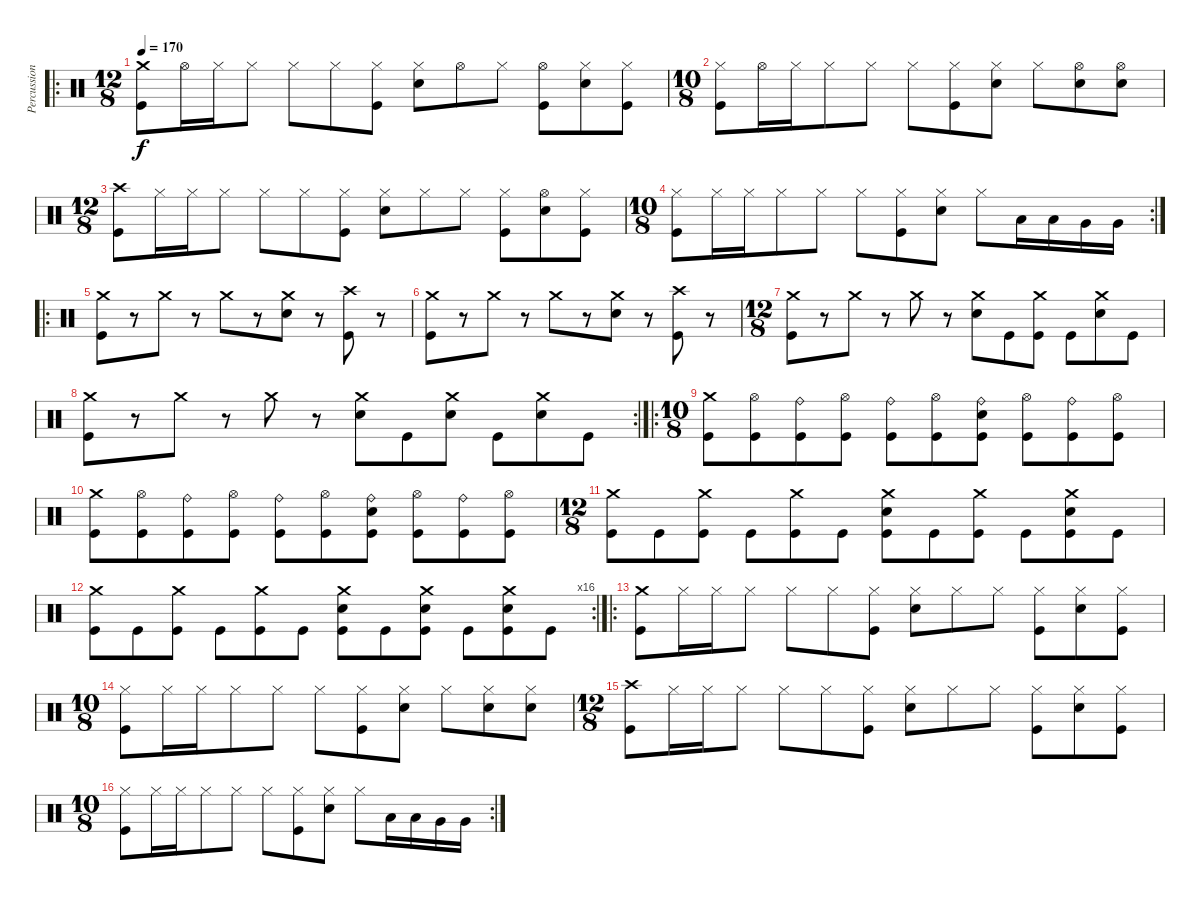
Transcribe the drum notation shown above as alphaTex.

\track ("Percussion" "Percussion") {instrument percussion}
\staff {score}
\articulation defaults
\ro
\ts (12 8)
\tempo 170
\clef neutral
\ks c
("Crash medium (hit)" "Kick (hit)").8{dy f} "Hi-Hat (open)".16 "Hi-Hat (closed)".16 "Hi-Hat (closed)".8 "Hi-Hat (closed)".8 "Hi-Hat (closed)".8 ("Hi-Hat (closed)" "Kick (hit)").8 ("Hi-Hat (closed)" "Snare (hit) 2").8 "Hi-Hat (open)".8 "Hi-Hat (closed)".8 ("Hi-Hat (open)" "Kick (hit)").8 ("Hi-Hat (closed)" "Snare (hit) 2").8 ("Hi-Hat (closed)" "Kick (hit)").8 |
\ts (10 8)
("Hi-Hat (closed)" "Kick (hit)").8 "Hi-Hat (open)".16 "Hi-Hat (closed)".16 "Hi-Hat (closed)".8 "Hi-Hat (closed)".8 "Hi-Hat (closed)".8 ("Hi-Hat (closed)" "Kick (hit)").8 ("Hi-Hat (closed)" "Snare (hit) 2").8 "Hi-Hat (closed)".8 ("Hi-Hat (open)" "Snare (hit) 2").8 ("Hi-Hat (open)" "Snare (hit) 2").8 |
\ts (12 8)
("Crash high (hit)" "Kick (hit)").8 "Hi-Hat (closed)".16 "Hi-Hat (closed)".16 "Hi-Hat (closed)".8 "Hi-Hat (closed)".8 "Hi-Hat (closed)".8 ("Hi-Hat (closed)" "Kick (hit)").8 ("Hi-Hat (closed)" "Snare (hit) 2").8 "Hi-Hat (closed)".8 "Hi-Hat (closed)".8 ("Hi-Hat (closed)" "Kick (hit)").8 ("Hi-Hat (open)" "Snare (hit) 2").8 ("Hi-Hat (closed)" "Kick (hit)").8 |
\rc 2
\ts (10 8)
("Hi-Hat (closed)" "Kick (hit)").8 "Hi-Hat (closed)".16 "Hi-Hat (closed)".16 "Hi-Hat (closed)".8 "Hi-Hat (closed)".8 "Hi-Hat (closed)".8 ("Hi-Hat (closed)" "Kick (hit)").8 ("Hi-Hat (closed)" "Snare (hit) 2").8 "Hi-Hat (closed)".8 "Low Tom (hit)".16 "Low Tom (hit)".16 "Very Low Tom (hit)".16 "Very Low Tom (hit)".16 |
\ro
("Crash medium (hit)" "Kick (hit)").8 r.8 "Crash medium (hit)".8 r.8 "Crash medium (hit)".8 r.8 ("Crash medium (hit)" "Snare (hit) 2").8 r.8 ("Crash high (hit)" "Kick (hit)").8 r.8 |
("Crash medium (hit)" "Kick (hit)").8 r.8 "Crash medium (hit)".8 r.8 "Crash medium (hit)".8 r.8 ("Crash medium (hit)" "Snare (hit) 2").8 r.8 ("Crash high (hit)" "Kick (hit)").8 r.8 |
\ts (12 8)
("Crash medium (hit)" "Kick (hit)").8 r.8 "Crash medium (hit)".8 r.8 "Crash medium (hit)".8 r.8 ("Crash medium (hit)" "Snare (hit) 2").8 "Kick (hit)".8 ("Crash medium (hit)" "Kick (hit)").8 "Kick (hit)".8 ("Crash medium (hit)" "Snare (hit) 2").8 "Kick (hit)".8 |
\rc 2
("Crash medium (hit)" "Kick (hit)").8 r.8 "Crash medium (hit)".8 r.8 "Crash medium (hit)".8 r.8 ("Crash medium (hit)" "Snare (hit) 2").8 "Kick (hit)".8 ("Crash medium (hit)" "Snare (hit) 2").8 "Kick (hit)".8 ("Crash medium (hit)" "Snare (hit) 2").8 "Kick (hit)".8 |
\ro
\ts (10 8)
("Crash medium (hit)" "Kick (hit)").8 ("Hi-Hat (open)" "Kick (hit)").8 ("Ride (bell)" "Kick (hit)").8 ("Hi-Hat (open)" "Kick (hit)").8 ("Ride (bell)" "Kick (hit)").8 ("Hi-Hat (open)" "Kick (hit)").8 ("Ride (bell)" "Snare (hit) 2" "Kick (hit)").8 ("Hi-Hat (open)" "Kick (hit)").8 ("Ride (bell)" "Kick (hit)").8 ("Hi-Hat (open)" "Kick (hit)").8 |
("Crash medium (hit)" "Kick (hit)").8 ("Hi-Hat (open)" "Kick (hit)").8 ("Ride (bell)" "Kick (hit)").8 ("Hi-Hat (open)" "Kick (hit)").8 ("Ride (bell)" "Kick (hit)").8 ("Hi-Hat (open)" "Kick (hit)").8 ("Ride (bell)" "Snare (hit) 2" "Kick (hit)").8 ("Hi-Hat (open)" "Kick (hit)").8 ("Ride (bell)" "Kick (hit)").8 ("Hi-Hat (open)" "Kick (hit)").8 |
\ts (12 8)
("Crash medium (hit)" "Kick (hit)").8 "Kick (hit)".8 ("Crash medium (hit)" "Kick (hit)").8 "Kick (hit)".8 ("Crash medium (hit)" "Kick (hit)").8 "Kick (hit)".8 ("Crash medium (hit)" "Snare (hit) 2" "Kick (hit)").8 "Kick (hit)".8 ("Crash medium (hit)" "Kick (hit)").8 "Kick (hit)".8 ("Crash medium (hit)" "Snare (hit) 2" "Kick (hit)").8 "Kick (hit)".8 |
\rc 16
("Crash medium (hit)" "Kick (hit)").8 "Kick (hit)".8 ("Crash medium (hit)" "Kick (hit)").8 "Kick (hit)".8 ("Crash medium (hit)" "Kick (hit)").8 "Kick (hit)".8 ("Crash medium (hit)" "Snare (hit) 2" "Kick (hit)").8 "Kick (hit)".8 ("Crash medium (hit)" "Snare (hit) 2" "Kick (hit)").8 "Kick (hit)".8 ("Crash medium (hit)" "Snare (hit) 2" "Kick (hit)").8 "Kick (hit)".8 |
\ro
("Crash medium (hit)" "Kick (hit)").8 "Hi-Hat (closed)".16 "Hi-Hat (closed)".16 "Hi-Hat (closed)".8 "Hi-Hat (closed)".8 "Hi-Hat (closed)".8 ("Hi-Hat (closed)" "Kick (hit)").8 ("Hi-Hat (closed)" "Snare (hit) 2").8 "Hi-Hat (closed)".8 "Hi-Hat (closed)".8 ("Hi-Hat (closed)" "Kick (hit)").8 ("Hi-Hat (closed)" "Snare (hit) 2").8 ("Hi-Hat (closed)" "Kick (hit)").8 |
\ts (10 8)
("Hi-Hat (closed)" "Kick (hit)").8 "Hi-Hat (closed)".16 "Hi-Hat (closed)".16 "Hi-Hat (closed)".8 "Hi-Hat (closed)".8 "Hi-Hat (closed)".8 ("Hi-Hat (closed)" "Kick (hit)").8 ("Hi-Hat (closed)" "Snare (hit) 2").8 "Hi-Hat (closed)".8 ("Hi-Hat (closed)" "Snare (hit) 2").8 ("Hi-Hat (closed)" "Snare (hit) 2").8 |
\ts (12 8)
("Crash high (hit)" "Kick (hit)").8 "Hi-Hat (closed)".16 "Hi-Hat (closed)".16 "Hi-Hat (closed)".8 "Hi-Hat (closed)".8 "Hi-Hat (closed)".8 ("Hi-Hat (closed)" "Kick (hit)").8 ("Hi-Hat (closed)" "Snare (hit) 2").8 "Hi-Hat (closed)".8 "Hi-Hat (closed)".8 ("Hi-Hat (closed)" "Kick (hit)").8 ("Hi-Hat (closed)" "Snare (hit) 2").8 ("Hi-Hat (closed)" "Kick (hit)").8 |
\rc 2
\ts (10 8)
("Hi-Hat (closed)" "Kick (hit)").8 "Hi-Hat (closed)".16 "Hi-Hat (closed)".16 "Hi-Hat (closed)".8 "Hi-Hat (closed)".8 "Hi-Hat (closed)".8 ("Hi-Hat (closed)" "Kick (hit)").8 ("Hi-Hat (closed)" "Snare (hit) 2").8 "Hi-Hat (closed)".8 "Low Tom (hit)".16 "Low Tom (hit)".16 "Very Low Tom (hit)".16 "Very Low Tom (hit)".16
